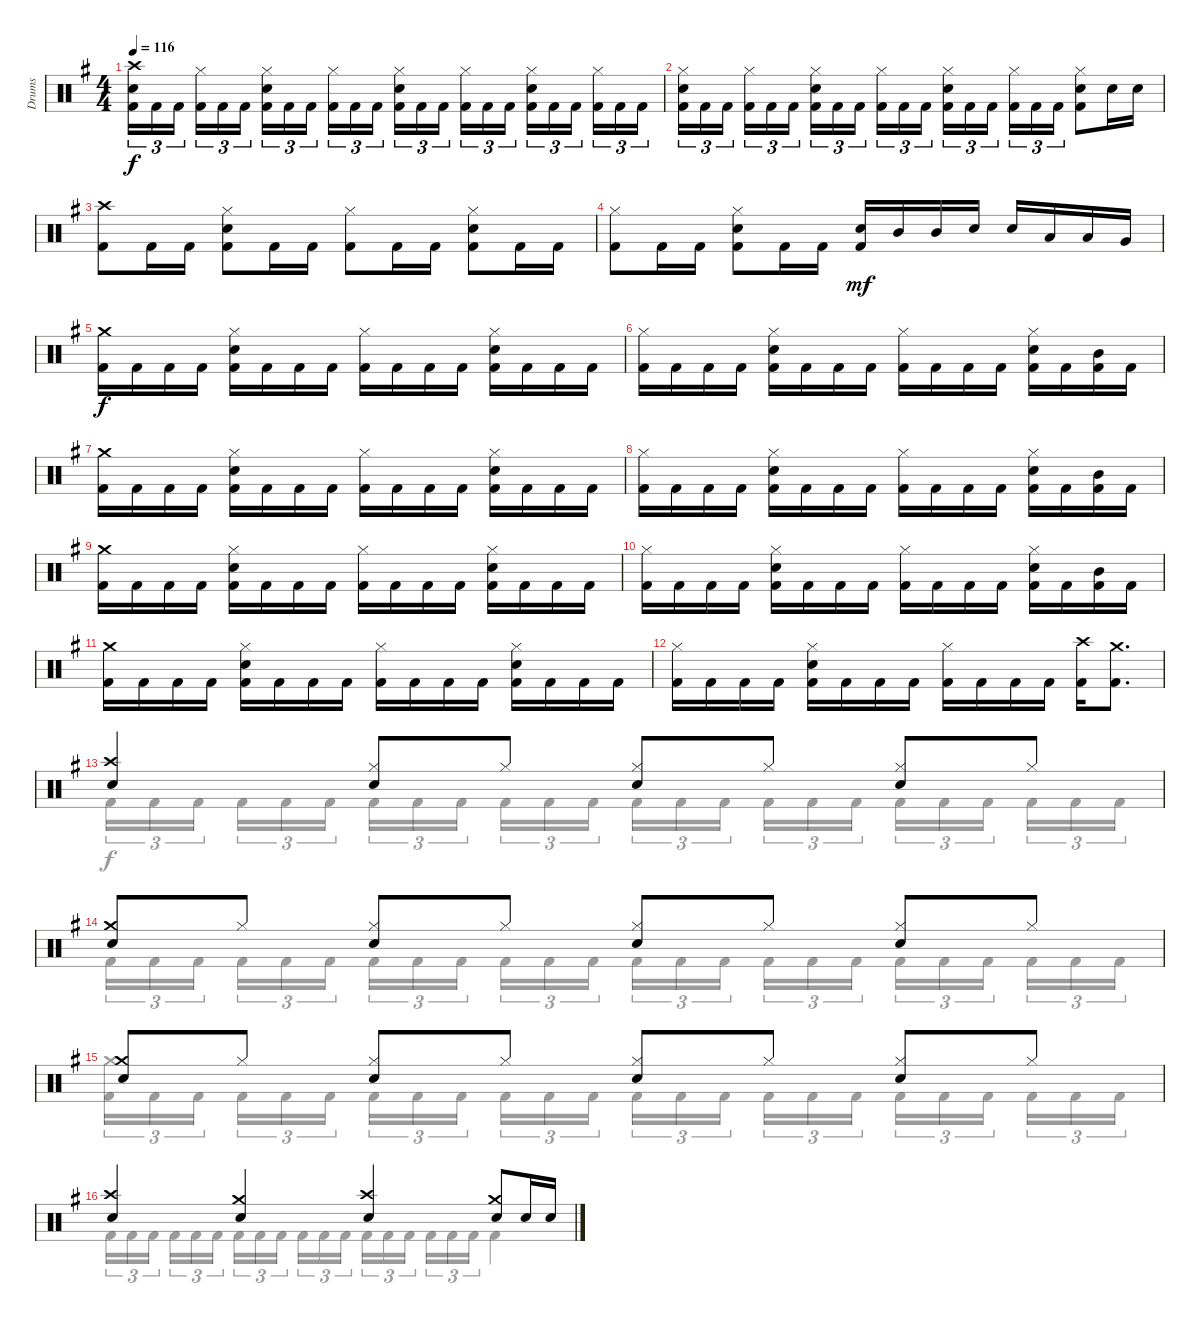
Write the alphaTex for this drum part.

\track ("Drums" "Drums") {instrument percussion}
\staff {score}
\articulation defaults
\voice
\ts (4 4)
\tempo 116
\clef neutral
\ks eminor
("Crash high (hit)" "Snare (hit) 2" "Kick (hit) 2").16{tu (3 2) dy f} "Kick (hit) 2".16{tu (3 2)} "Kick (hit) 2".16{tu (3 2) beam splitsecondary} ("Hi-Hat (closed)" "Kick (hit) 2").16{tu (3 2)} "Kick (hit) 2".16{tu (3 2)} "Kick (hit) 2".16{tu (3 2)} ("Hi-Hat (closed)" "Snare (hit) 2" "Kick (hit) 2").16{tu (3 2)} "Kick (hit) 2".16{tu (3 2)} "Kick (hit) 2".16{tu (3 2) beam splitsecondary} ("Hi-Hat (closed)" "Kick (hit) 2").16{tu (3 2)} "Kick (hit) 2".16{tu (3 2)} "Kick (hit) 2".16{tu (3 2)} ("Hi-Hat (closed)" "Snare (hit) 2" "Kick (hit) 2").16{tu (3 2)} "Kick (hit) 2".16{tu (3 2)} "Kick (hit) 2".16{tu (3 2) beam splitsecondary} ("Hi-Hat (closed)" "Kick (hit) 2").16{tu (3 2)} "Kick (hit) 2".16{tu (3 2)} "Kick (hit) 2".16{tu (3 2)} ("Hi-Hat (closed)" "Snare (hit) 2" "Kick (hit) 2").16{tu (3 2)} "Kick (hit) 2".16{tu (3 2)} "Kick (hit) 2".16{tu (3 2) beam splitsecondary} ("Hi-Hat (closed)" "Kick (hit) 2").16{tu (3 2)} "Kick (hit) 2".16{tu (3 2)} "Kick (hit) 2".16{tu (3 2)} |
("Hi-Hat (closed)" "Snare (hit) 2" "Kick (hit) 2").16{tu (3 2)} "Kick (hit) 2".16{tu (3 2)} "Kick (hit) 2".16{tu (3 2) beam splitsecondary} ("Hi-Hat (closed)" "Kick (hit) 2").16{tu (3 2)} "Kick (hit) 2".16{tu (3 2)} "Kick (hit) 2".16{tu (3 2)} ("Hi-Hat (closed)" "Snare (hit) 2" "Kick (hit) 2").16{tu (3 2)} "Kick (hit) 2".16{tu (3 2)} "Kick (hit) 2".16{tu (3 2) beam splitsecondary} ("Hi-Hat (closed)" "Kick (hit) 2").16{tu (3 2)} "Kick (hit) 2".16{tu (3 2)} "Kick (hit) 2".16{tu (3 2)} ("Hi-Hat (closed)" "Snare (hit) 2" "Kick (hit) 2").16{tu (3 2)} "Kick (hit) 2".16{tu (3 2)} "Kick (hit) 2".16{tu (3 2) beam splitsecondary} ("Hi-Hat (closed)" "Kick (hit) 2").16{tu (3 2)} "Kick (hit) 2".16{tu (3 2)} "Kick (hit) 2".16{tu (3 2)} ("Hi-Hat (closed)" "Snare (hit) 2" "Kick (hit) 2").8 "Snare (hit) 2".16 "Snare (hit) 2".16 |
("Crash high (hit)" "Kick (hit) 2").8 "Kick (hit) 2".16 "Kick (hit) 2".16 ("Hi-Hat (closed)" "Snare (hit) 2" "Kick (hit) 2").8 "Kick (hit) 2".16 "Kick (hit) 2".16 ("Hi-Hat (closed)" "Kick (hit) 2").8 "Kick (hit) 2".16 "Kick (hit) 2".16 ("Hi-Hat (closed)" "Snare (hit) 2" "Kick (hit) 2").8 "Kick (hit) 2".16 "Kick (hit) 2".16 |
("Hi-Hat (closed)" "Kick (hit) 2").8 "Kick (hit) 2".16 "Kick (hit) 2".16 ("Hi-Hat (closed)" "Snare (hit) 2" "Kick (hit) 2").8 "Kick (hit) 2".16 "Kick (hit) 2".16 ("Snare (hit) 2" "Kick (hit) 2").16{dy mf} "Mid Tom (hit)".16 "Mid Tom (hit)".16 "Snare (hit) 2".16 "Snare (hit) 2".16 "Low Tom (hit)".16 "Low Tom (hit)".16 "Very Low Tom (hit)".16 |
("Crash medium (hit)" "Kick (hit) 2").16{dy f} "Kick (hit) 2".16 "Kick (hit) 2".16 "Kick (hit) 2".16 ("Hi-Hat (closed)" "Snare (hit) 2" "Kick (hit) 2").16 "Kick (hit) 2".16 "Kick (hit) 2".16 "Kick (hit) 2".16 ("Hi-Hat (closed)" "Kick (hit) 2").16 "Kick (hit) 2".16 "Kick (hit) 2".16 "Kick (hit) 2".16 ("Hi-Hat (closed)" "Snare (hit) 2" "Kick (hit) 2").16 "Kick (hit) 2".16 "Kick (hit) 2".16 "Kick (hit) 2".16 |
("Hi-Hat (closed)" "Kick (hit) 2").16 "Kick (hit) 2".16 "Kick (hit) 2".16 "Kick (hit) 2".16 ("Hi-Hat (closed)" "Snare (hit) 2" "Kick (hit) 2").16 "Kick (hit) 2".16 "Kick (hit) 2".16 "Kick (hit) 2".16 ("Hi-Hat (closed)" "Kick (hit) 2").16 "Kick (hit) 2".16 "Kick (hit) 2".16 "Kick (hit) 2".16 ("Hi-Hat (closed)" "Snare (hit) 2" "Kick (hit) 2").16 "Kick (hit) 2".16 ("Mid Tom (hit)" "Kick (hit) 2").16 "Kick (hit) 2".16 |
("Crash medium (hit)" "Kick (hit) 2").16 "Kick (hit) 2".16 "Kick (hit) 2".16 "Kick (hit) 2".16 ("Hi-Hat (closed)" "Snare (hit) 2" "Kick (hit) 2").16 "Kick (hit) 2".16 "Kick (hit) 2".16 "Kick (hit) 2".16 ("Hi-Hat (closed)" "Kick (hit) 2").16 "Kick (hit) 2".16 "Kick (hit) 2".16 "Kick (hit) 2".16 ("Hi-Hat (closed)" "Snare (hit) 2" "Kick (hit) 2").16 "Kick (hit) 2".16 "Kick (hit) 2".16 "Kick (hit) 2".16 |
("Hi-Hat (closed)" "Kick (hit) 2").16 "Kick (hit) 2".16 "Kick (hit) 2".16 "Kick (hit) 2".16 ("Hi-Hat (closed)" "Snare (hit) 2" "Kick (hit) 2").16 "Kick (hit) 2".16 "Kick (hit) 2".16 "Kick (hit) 2".16 ("Hi-Hat (closed)" "Kick (hit) 2").16 "Kick (hit) 2".16 "Kick (hit) 2".16 "Kick (hit) 2".16 ("Hi-Hat (closed)" "Snare (hit) 2" "Kick (hit) 2").16 "Kick (hit) 2".16 ("Mid Tom (hit)" "Kick (hit) 2").16 "Kick (hit) 2".16 |
("Crash medium (hit)" "Kick (hit) 2").16 "Kick (hit) 2".16 "Kick (hit) 2".16 "Kick (hit) 2".16 ("Hi-Hat (closed)" "Snare (hit) 2" "Kick (hit) 2").16 "Kick (hit) 2".16 "Kick (hit) 2".16 "Kick (hit) 2".16 ("Hi-Hat (closed)" "Kick (hit) 2").16 "Kick (hit) 2".16 "Kick (hit) 2".16 "Kick (hit) 2".16 ("Hi-Hat (closed)" "Snare (hit) 2" "Kick (hit) 2").16 "Kick (hit) 2".16 "Kick (hit) 2".16 "Kick (hit) 2".16 |
("Hi-Hat (closed)" "Kick (hit) 2").16 "Kick (hit) 2".16 "Kick (hit) 2".16 "Kick (hit) 2".16 ("Hi-Hat (closed)" "Snare (hit) 2" "Kick (hit) 2").16 "Kick (hit) 2".16 "Kick (hit) 2".16 "Kick (hit) 2".16 ("Hi-Hat (closed)" "Kick (hit) 2").16 "Kick (hit) 2".16 "Kick (hit) 2".16 "Kick (hit) 2".16 ("Hi-Hat (closed)" "Snare (hit) 2" "Kick (hit) 2").16 "Kick (hit) 2".16 ("Mid Tom (hit)" "Kick (hit) 2").16 "Kick (hit) 2".16 |
("Crash medium (hit)" "Kick (hit) 2").16 "Kick (hit) 2".16 "Kick (hit) 2".16 "Kick (hit) 2".16 ("Hi-Hat (closed)" "Snare (hit) 2" "Kick (hit) 2").16 "Kick (hit) 2".16 "Kick (hit) 2".16 "Kick (hit) 2".16 ("Hi-Hat (closed)" "Kick (hit) 2").16 "Kick (hit) 2".16 "Kick (hit) 2".16 "Kick (hit) 2".16 ("Hi-Hat (closed)" "Snare (hit) 2" "Kick (hit) 2").16 "Kick (hit) 2".16 "Kick (hit) 2".16 "Kick (hit) 2".16 |
("Hi-Hat (closed)" "Kick (hit) 2").16 "Kick (hit) 2".16 "Kick (hit) 2".16 "Kick (hit) 2".16 ("Hi-Hat (closed)" "Snare (hit) 2" "Kick (hit) 2").16 "Kick (hit) 2".16 "Kick (hit) 2".16 "Kick (hit) 2".16 ("Hi-Hat (closed)" "Kick (hit) 2").16 "Kick (hit) 2".16 "Kick (hit) 2".16 "Kick (hit) 2".16 ("Crash high (hit)" "Kick (hit) 2").16 ("Crash medium (hit)" "Kick (hit) 2").8{d} |
("Crash high (hit)" "Snare (hit) 2").4 ("Hi-Hat (closed)" "Snare (hit) 2").8 "Hi-Hat (closed)".8 ("Hi-Hat (closed)" "Snare (hit) 2").8 "Hi-Hat (closed)".8 ("Hi-Hat (closed)" "Snare (hit) 2").8 "Hi-Hat (closed)".8 |
("Crash medium (hit)" "Snare (hit) 2").8 "Hi-Hat (closed)".8 ("Hi-Hat (closed)" "Snare (hit) 2").8 "Hi-Hat (closed)".8 ("Hi-Hat (closed)" "Snare (hit) 2").8 "Hi-Hat (closed)".8 ("Hi-Hat (closed)" "Snare (hit) 2").8 "Hi-Hat (closed)".8 |
("Crash medium (hit)" "Snare (hit) 2").8 "Hi-Hat (closed)".8 ("Hi-Hat (closed)" "Snare (hit) 2").8 "Hi-Hat (closed)".8 ("Hi-Hat (closed)" "Snare (hit) 2").8 "Hi-Hat (closed)".8 ("Hi-Hat (closed)" "Snare (hit) 2").8 "Hi-Hat (closed)".8 |
("Crash high (hit)" "Snare (hit) 2").4 ("Crash medium (hit)" "Snare (hit) 2").4 ("Crash high (hit)" "Snare (hit) 2").4 ("Crash medium (hit)" "Snare (hit) 2").8 "Snare (hit) 2".16 "Snare (hit) 2".16
\voice
\clef neutral
\ottava regular
\simile none
\ks eminor
|
|
|
|
|
|
|
|
|
|
|
|
"Kick (hit) 2".16{tu (3 2)} "Kick (hit) 2".16{tu (3 2)} "Kick (hit) 2".16{tu (3 2) beam splitsecondary} "Kick (hit) 2".16{tu (3 2)} "Kick (hit) 2".16{tu (3 2)} "Kick (hit) 2".16{tu (3 2)} "Kick (hit) 2".16{tu (3 2)} "Kick (hit) 2".16{tu (3 2)} "Kick (hit) 2".16{tu (3 2) beam splitsecondary} "Kick (hit) 2".16{tu (3 2)} "Kick (hit) 2".16{tu (3 2)} "Kick (hit) 2".16{tu (3 2)} "Kick (hit) 2".16{tu (3 2)} "Kick (hit) 2".16{tu (3 2)} "Kick (hit) 2".16{tu (3 2) beam splitsecondary} "Kick (hit) 2".16{tu (3 2)} "Kick (hit) 2".16{tu (3 2)} "Kick (hit) 2".16{tu (3 2)} "Kick (hit) 2".16{tu (3 2)} "Kick (hit) 2".16{tu (3 2)} "Kick (hit) 2".16{tu (3 2) beam splitsecondary} "Kick (hit) 2".16{tu (3 2)} "Kick (hit) 2".16{tu (3 2)} "Kick (hit) 2".16{tu (3 2)} |
"Kick (hit) 2".16{tu (3 2)} "Kick (hit) 2".16{tu (3 2)} "Kick (hit) 2".16{tu (3 2) beam splitsecondary} "Kick (hit) 2".16{tu (3 2)} "Kick (hit) 2".16{tu (3 2)} "Kick (hit) 2".16{tu (3 2)} "Kick (hit) 2".16{tu (3 2)} "Kick (hit) 2".16{tu (3 2)} "Kick (hit) 2".16{tu (3 2) beam splitsecondary} "Kick (hit) 2".16{tu (3 2)} "Kick (hit) 2".16{tu (3 2)} "Kick (hit) 2".16{tu (3 2)} "Kick (hit) 2".16{tu (3 2)} "Kick (hit) 2".16{tu (3 2)} "Kick (hit) 2".16{tu (3 2) beam splitsecondary} "Kick (hit) 2".16{tu (3 2)} "Kick (hit) 2".16{tu (3 2)} "Kick (hit) 2".16{tu (3 2)} "Kick (hit) 2".16{tu (3 2)} "Kick (hit) 2".16{tu (3 2)} "Kick (hit) 2".16{tu (3 2) beam splitsecondary} "Kick (hit) 2".16{tu (3 2)} "Kick (hit) 2".16{tu (3 2)} "Kick (hit) 2".16{tu (3 2)} |
("Crash medium (hit)" "Kick (hit) 2").16{tu (3 2)} "Kick (hit) 2".16{tu (3 2)} "Kick (hit) 2".16{tu (3 2) beam splitsecondary} "Kick (hit) 2".16{tu (3 2)} "Kick (hit) 2".16{tu (3 2)} "Kick (hit) 2".16{tu (3 2)} "Kick (hit) 2".16{tu (3 2)} "Kick (hit) 2".16{tu (3 2)} "Kick (hit) 2".16{tu (3 2) beam splitsecondary} "Kick (hit) 2".16{tu (3 2)} "Kick (hit) 2".16{tu (3 2)} "Kick (hit) 2".16{tu (3 2)} "Kick (hit) 2".16{tu (3 2)} "Kick (hit) 2".16{tu (3 2)} "Kick (hit) 2".16{tu (3 2) beam splitsecondary} "Kick (hit) 2".16{tu (3 2)} "Kick (hit) 2".16{tu (3 2)} "Kick (hit) 2".16{tu (3 2)} "Kick (hit) 2".16{tu (3 2)} "Kick (hit) 2".16{tu (3 2)} "Kick (hit) 2".16{tu (3 2) beam splitsecondary} "Kick (hit) 2".16{tu (3 2)} "Kick (hit) 2".16{tu (3 2)} "Kick (hit) 2".16{tu (3 2)} |
"Kick (hit) 2".16{tu (3 2)} "Kick (hit) 2".16{tu (3 2)} "Kick (hit) 2".16{tu (3 2) beam splitsecondary} "Kick (hit) 2".16{tu (3 2)} "Kick (hit) 2".16{tu (3 2)} "Kick (hit) 2".16{tu (3 2)} "Kick (hit) 2".16{tu (3 2)} "Kick (hit) 2".16{tu (3 2)} "Kick (hit) 2".16{tu (3 2) beam splitsecondary} "Kick (hit) 2".16{tu (3 2)} "Kick (hit) 2".16{tu (3 2)} "Kick (hit) 2".16{tu (3 2)} "Kick (hit) 2".16{tu (3 2)} "Kick (hit) 2".16{tu (3 2)} "Kick (hit) 2".16{tu (3 2) beam splitsecondary} "Kick (hit) 2".16{tu (3 2)} "Kick (hit) 2".16{tu (3 2)} "Kick (hit) 2".16{tu (3 2)} "Kick (hit) 2".4
